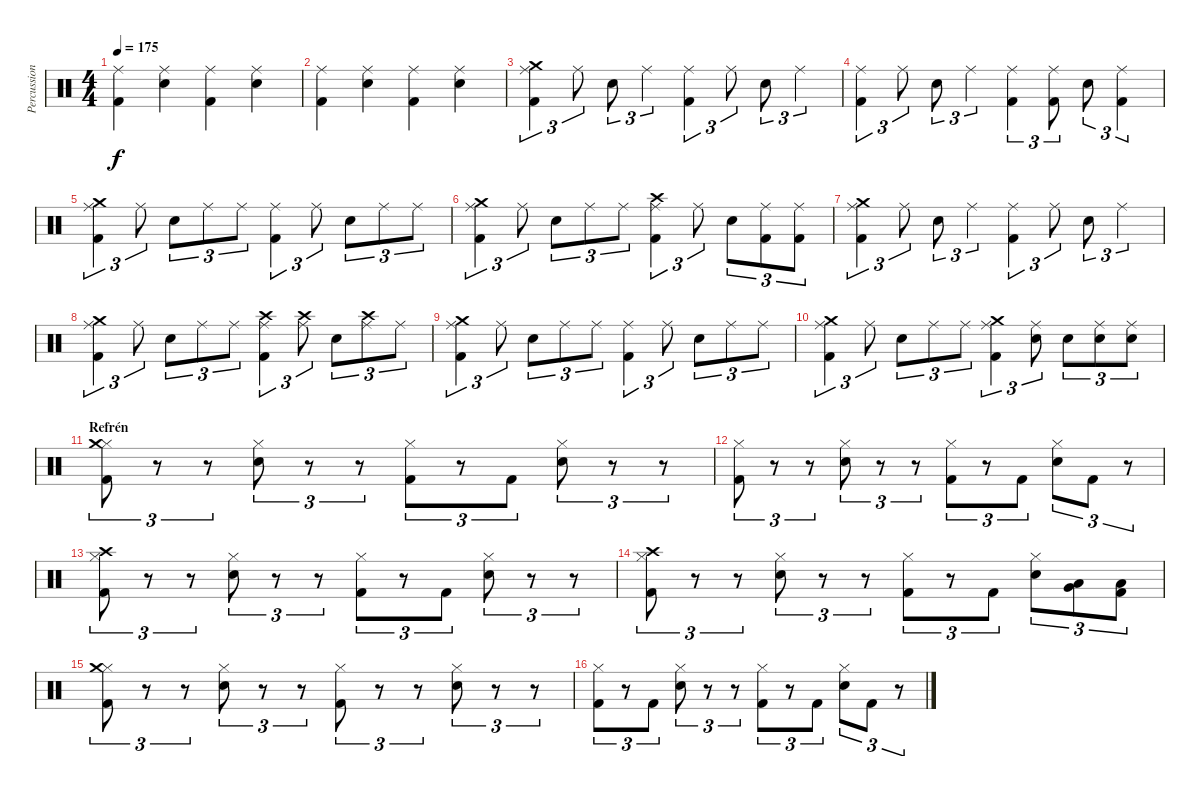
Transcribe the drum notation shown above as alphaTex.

\track ("Percussion" "Percussion") {instrument percussion}
\staff {score}
\articulation defaults
\ts (4 4)
\tempo 175
\clef neutral
\ks c
("Ride (middle)" "Kick (hit) 2").4{dy f} ("Ride (middle)" "Electric Snare (hit)").4 ("Ride (middle)" "Kick (hit) 2").4 ("Ride (middle)" "Electric Snare (hit)").4 |
("Ride (middle)" "Kick (hit) 2").4 ("Ride (middle)" "Electric Snare (hit)").4 ("Ride (middle)" "Kick (hit) 2").4 ("Ride (middle)" "Electric Snare (hit)").4 |
("Ride (middle)" "Kick (hit) 2" "Crash medium (hit)").4{tu (3 2)} "Ride (middle)".8{tu (3 2)} "Electric Snare (hit)".8{tu (3 2)} "Ride (middle)".4{tu (3 2)} ("Ride (middle)" "Kick (hit) 2").4{tu (3 2)} "Ride (middle)".8{tu (3 2)} "Electric Snare (hit)".8{tu (3 2)} "Ride (middle)".4{tu (3 2)} |
("Ride (middle)" "Kick (hit) 2").4{tu (3 2)} "Ride (middle)".8{tu (3 2)} "Electric Snare (hit)".8{tu (3 2)} "Ride (middle)".4{tu (3 2)} ("Ride (middle)" "Kick (hit) 2").4{tu (3 2)} ("Ride (middle)" "Kick (hit) 2").8{tu (3 2)} "Electric Snare (hit)".8{tu (3 2)} ("Ride (middle)" "Kick (hit) 2").4{tu (3 2)} |
("Ride (middle)" "Kick (hit) 2" "Crash medium (hit)").4{tu (3 2)} "Ride (middle)".8{tu (3 2)} "Electric Snare (hit)".8{tu (3 2)} "Ride (middle)".8{tu (3 2)} "Ride (middle)".8{tu (3 2)} ("Ride (middle)" "Kick (hit) 2").4{tu (3 2)} "Ride (middle)".8{tu (3 2)} "Electric Snare (hit)".8{tu (3 2)} "Ride (middle)".8{tu (3 2)} "Ride (middle)".8{tu (3 2)} |
("Ride (middle)" "Kick (hit) 2" "Crash medium (hit)").4{tu (3 2)} "Ride (middle)".8{tu (3 2)} "Electric Snare (hit)".8{tu (3 2)} "Ride (middle)".8{tu (3 2)} "Ride (middle)".8{tu (3 2)} ("Ride (middle)" "Kick (hit) 2" "Crash high (hit)").4{tu (3 2)} "Ride (middle)".8{tu (3 2)} "Electric Snare (hit)".8{tu (3 2)} ("Ride (middle)" "Kick (hit) 2").8{tu (3 2)} ("Ride (middle)" "Kick (hit) 2").8{tu (3 2)} |
("Ride (middle)" "Kick (hit) 2" "Crash medium (hit)").4{tu (3 2)} "Ride (middle)".8{tu (3 2)} "Electric Snare (hit)".8{tu (3 2)} "Ride (middle)".4{tu (3 2)} ("Ride (middle)" "Kick (hit) 2").4{tu (3 2)} "Ride (middle)".8{tu (3 2)} "Electric Snare (hit)".8{tu (3 2)} "Ride (middle)".4{tu (3 2)} |
("Ride (middle)" "Kick (hit) 2" "Crash medium (hit)").4{tu (3 2)} "Ride (middle)".8{tu (3 2)} "Electric Snare (hit)".8{tu (3 2)} "Ride (middle)".8{tu (3 2)} "Ride (middle)".8{tu (3 2)} ("Ride (middle)" "Kick (hit) 2" "Crash high (hit)").4{tu (3 2)} ("Ride (middle)" "Crash high (hit)").8{tu (3 2)} "Electric Snare (hit)".8{tu (3 2)} ("Ride (middle)" "Crash high (hit)").8{tu (3 2)} "Ride (middle)".8{tu (3 2)} |
("Ride (middle)" "Kick (hit) 2" "Crash medium (hit)").4{tu (3 2)} "Ride (middle)".8{tu (3 2)} "Electric Snare (hit)".8{tu (3 2)} "Ride (middle)".8{tu (3 2)} "Ride (middle)".8{tu (3 2)} ("Ride (middle)" "Kick (hit) 2").4{tu (3 2)} "Ride (middle)".8{tu (3 2)} "Electric Snare (hit)".8{tu (3 2)} "Ride (middle)".8{tu (3 2)} "Ride (middle)".8{tu (3 2)} |
("Ride (middle)" "Kick (hit) 2" "Crash medium (hit)").4{tu (3 2)} "Ride (middle)".8{tu (3 2)} "Electric Snare (hit)".8{tu (3 2)} "Ride (middle)".8{tu (3 2)} "Ride (middle)".8{tu (3 2)} ("Ride (middle)" "Kick (hit) 2" "Crash medium (hit)").4{tu (3 2)} ("Ride (middle)" "Electric Snare (hit)").8{tu (3 2)} "Electric Snare (hit)".8{tu (3 2)} ("Ride (middle)" "Electric Snare (hit)").8{tu (3 2)} ("Ride (middle)" "Electric Snare (hit)").8{tu (3 2)} |
\section ("" "Refrén")
("Hi-Hat (closed)" "Crash medium (hit)" "Kick (hit) 2").8{tu (3 2)} r.8{tu (3 2)} r.8{tu (3 2)} ("Hi-Hat (closed)" "Electric Snare (hit)").8{tu (3 2)} r.8{tu (3 2)} r.8{tu (3 2)} ("Hi-Hat (closed)" "Kick (hit) 2").8{tu (3 2)} r.8{tu (3 2)} "Kick (hit) 2".8{tu (3 2)} ("Hi-Hat (closed)" "Electric Snare (hit)").8{tu (3 2)} r.8{tu (3 2)} r.8{tu (3 2)} |
("Hi-Hat (closed)" "Kick (hit) 2").8{tu (3 2)} r.8{tu (3 2)} r.8{tu (3 2)} ("Hi-Hat (closed)" "Electric Snare (hit)").8{tu (3 2)} r.8{tu (3 2)} r.8{tu (3 2)} ("Hi-Hat (closed)" "Kick (hit) 2").8{tu (3 2)} r.8{tu (3 2)} "Kick (hit) 2".8{tu (3 2)} ("Hi-Hat (closed)" "Electric Snare (hit)").8{tu (3 2)} "Kick (hit) 2".8{tu (3 2)} r.8{tu (3 2)} |
("Hi-Hat (closed)" "Kick (hit) 2" "Crash high (hit)").8{tu (3 2)} r.8{tu (3 2)} r.8{tu (3 2)} ("Hi-Hat (closed)" "Electric Snare (hit)").8{tu (3 2)} r.8{tu (3 2)} r.8{tu (3 2)} ("Hi-Hat (closed)" "Kick (hit) 2").8{tu (3 2)} r.8{tu (3 2)} "Kick (hit) 2".8{tu (3 2)} ("Hi-Hat (closed)" "Electric Snare (hit)").8{tu (3 2)} r.8{tu (3 2)} r.8{tu (3 2)} |
("Hi-Hat (closed)" "Kick (hit) 2" "Crash high (hit)").8{tu (3 2)} r.8{tu (3 2)} r.8{tu (3 2)} ("Hi-Hat (closed)" "Electric Snare (hit)").8{tu (3 2)} r.8{tu (3 2)} r.8{tu (3 2)} ("Hi-Hat (closed)" "Kick (hit) 2").8{tu (3 2)} r.8{tu (3 2)} "Kick (hit) 2".8{tu (3 2)} ("Hi-Hat (closed)" "Electric Snare (hit)").8{tu (3 2)} ("Low Tom (hit)" "Very Low Tom (hit)").8{tu (3 2)} ("Low Floor Tom (hit)" "Kick (hit) 2").8{tu (3 2)} |
("Hi-Hat (closed)" "Kick (hit) 2" "Crash medium (hit)").8{tu (3 2)} r.8{tu (3 2)} r.8{tu (3 2)} ("Hi-Hat (closed)" "Electric Snare (hit)").8{tu (3 2)} r.8{tu (3 2)} r.8{tu (3 2)} ("Hi-Hat (closed)" "Kick (hit) 2").8{tu (3 2)} r.8{tu (3 2)} r.8{tu (3 2)} ("Hi-Hat (closed)" "Electric Snare (hit)").8{tu (3 2)} r.8{tu (3 2)} r.8{tu (3 2)} |
("Hi-Hat (closed)" "Kick (hit) 2").8{tu (3 2)} r.8{tu (3 2)} "Kick (hit) 2".8{tu (3 2)} ("Hi-Hat (closed)" "Electric Snare (hit)").8{tu (3 2)} r.8{tu (3 2)} r.8{tu (3 2)} ("Hi-Hat (closed)" "Kick (hit) 2").8{tu (3 2)} r.8{tu (3 2)} "Kick (hit) 2".8{tu (3 2)} ("Hi-Hat (closed)" "Electric Snare (hit)").8{tu (3 2)} "Kick (hit) 2".8{tu (3 2)} r.8{tu (3 2)}
